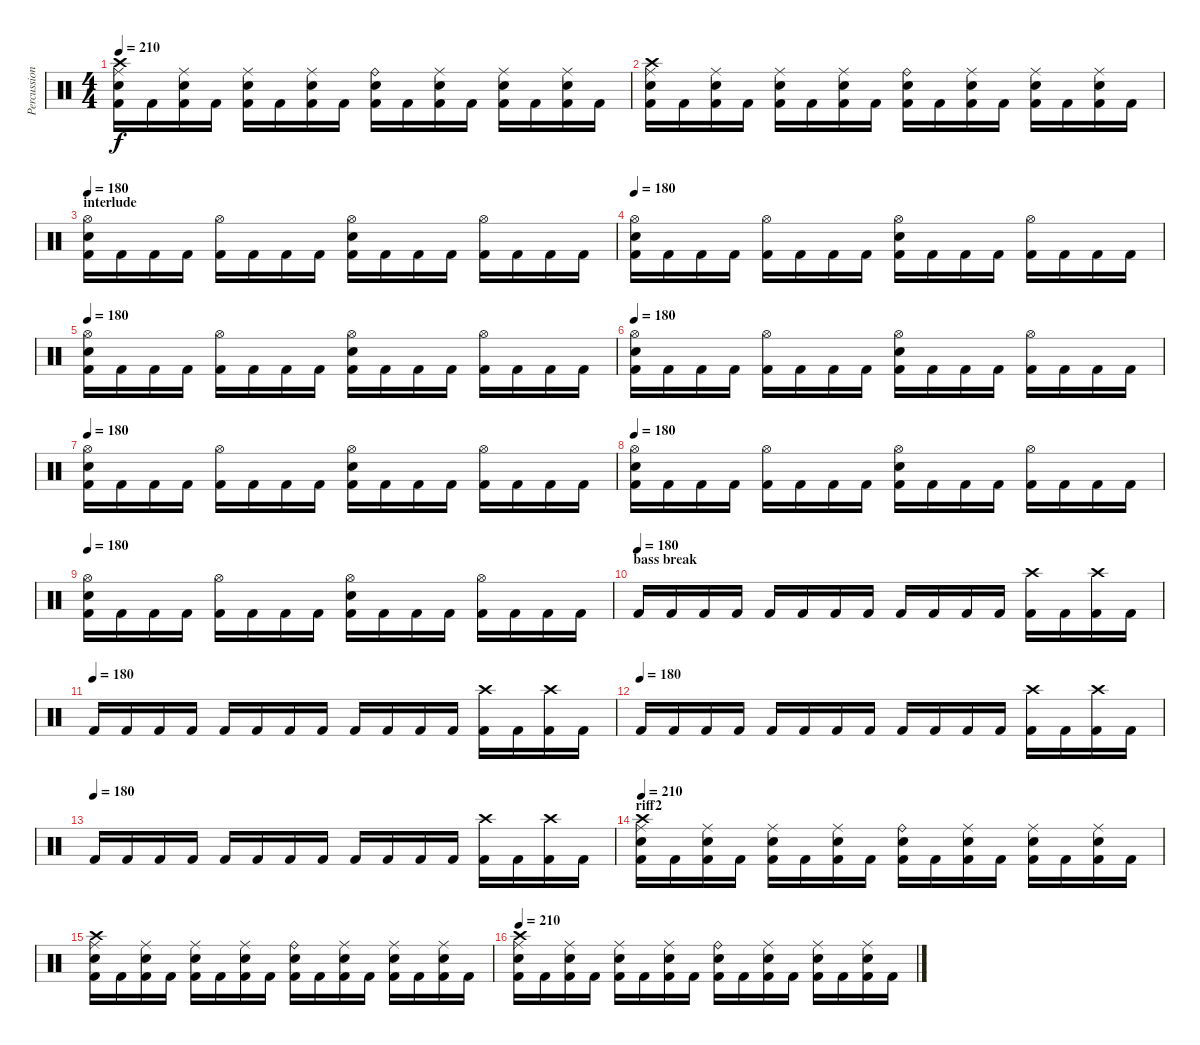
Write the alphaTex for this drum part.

\track ("Percussion" "Percussion") {instrument percussion}
\staff {score}
\articulation defaults
\ts (4 4)
\tempo 210
\clef neutral
\ks c
("Crash high (hit)" "Ride (middle)" "Snare (hit) 2" "Kick (hit) 2").16{dy f} "Kick (hit) 2".16 ("Ride (middle)" "Snare (hit) 2" "Kick (hit) 2").16 "Kick (hit) 2".16 ("Ride (middle)" "Snare (hit) 2" "Kick (hit) 2").16 "Kick (hit) 2".16 ("Ride (middle)" "Snare (hit) 2" "Kick (hit) 2").16 "Kick (hit) 2".16 ("Ride (bell)" "Snare (hit) 2" "Kick (hit) 2").16 "Kick (hit) 2".16 ("Ride (middle)" "Snare (hit) 2" "Kick (hit) 2").16 "Kick (hit) 2".16 ("Ride (middle)" "Snare (hit) 2" "Kick (hit) 2").16 "Kick (hit) 2".16 ("Ride (middle)" "Snare (hit) 2" "Kick (hit) 2").16 "Kick (hit) 2".16 |
("Crash high (hit)" "Ride (middle)" "Snare (hit) 2" "Kick (hit) 2").16 "Kick (hit) 2".16 ("Ride (middle)" "Snare (hit) 2" "Kick (hit) 2").16 "Kick (hit) 2".16 ("Ride (middle)" "Snare (hit) 2" "Kick (hit) 2").16 "Kick (hit) 2".16 ("Ride (middle)" "Snare (hit) 2" "Kick (hit) 2").16 "Kick (hit) 2".16 ("Ride (bell)" "Snare (hit) 2" "Kick (hit) 2").16 "Kick (hit) 2".16 ("Ride (middle)" "Snare (hit) 2" "Kick (hit) 2").16 "Kick (hit) 2".16 ("Ride (middle)" "Snare (hit) 2" "Kick (hit) 2").16 "Kick (hit) 2".16 ("Ride (middle)" "Snare (hit) 2" "Kick (hit) 2").16 "Kick (hit) 2".16 |
\section ("" "interlude")
\tempo 180
("Hi-Hat (open)" "Snare (hit) 2" "Kick (hit) 2").16 "Kick (hit) 2".16 "Kick (hit) 2".16 "Kick (hit) 2".16 ("Hi-Hat (open)" "Kick (hit) 2").16 "Kick (hit) 2".16 "Kick (hit) 2".16 "Kick (hit) 2".16 ("Hi-Hat (open)" "Snare (hit) 2" "Kick (hit) 2").16 "Kick (hit) 2".16 "Kick (hit) 2".16 "Kick (hit) 2".16 ("Hi-Hat (open)" "Kick (hit) 2").16 "Kick (hit) 2".16 "Kick (hit) 2".16 "Kick (hit) 2".16 |
\tempo 180
("Hi-Hat (open)" "Snare (hit) 2" "Kick (hit) 2").16 "Kick (hit) 2".16 "Kick (hit) 2".16 "Kick (hit) 2".16 ("Hi-Hat (open)" "Kick (hit) 2").16 "Kick (hit) 2".16 "Kick (hit) 2".16 "Kick (hit) 2".16 ("Hi-Hat (open)" "Snare (hit) 2" "Kick (hit) 2").16 "Kick (hit) 2".16 "Kick (hit) 2".16 "Kick (hit) 2".16 ("Hi-Hat (open)" "Kick (hit) 2").16 "Kick (hit) 2".16 "Kick (hit) 2".16 "Kick (hit) 2".16 |
\tempo 180
("Hi-Hat (open)" "Snare (hit) 2" "Kick (hit) 2").16 "Kick (hit) 2".16 "Kick (hit) 2".16 "Kick (hit) 2".16 ("Hi-Hat (open)" "Kick (hit) 2").16 "Kick (hit) 2".16 "Kick (hit) 2".16 "Kick (hit) 2".16 ("Hi-Hat (open)" "Snare (hit) 2" "Kick (hit) 2").16 "Kick (hit) 2".16 "Kick (hit) 2".16 "Kick (hit) 2".16 ("Hi-Hat (open)" "Kick (hit) 2").16 "Kick (hit) 2".16 "Kick (hit) 2".16 "Kick (hit) 2".16 |
\tempo 180
("Hi-Hat (open)" "Snare (hit) 2" "Kick (hit) 2").16 "Kick (hit) 2".16 "Kick (hit) 2".16 "Kick (hit) 2".16 ("Hi-Hat (open)" "Kick (hit) 2").16 "Kick (hit) 2".16 "Kick (hit) 2".16 "Kick (hit) 2".16 ("Hi-Hat (open)" "Snare (hit) 2" "Kick (hit) 2").16 "Kick (hit) 2".16 "Kick (hit) 2".16 "Kick (hit) 2".16 ("Hi-Hat (open)" "Kick (hit) 2").16 "Kick (hit) 2".16 "Kick (hit) 2".16 "Kick (hit) 2".16 |
\tempo 180
("Hi-Hat (open)" "Snare (hit) 2" "Kick (hit) 2").16 "Kick (hit) 2".16 "Kick (hit) 2".16 "Kick (hit) 2".16 ("Hi-Hat (open)" "Kick (hit) 2").16 "Kick (hit) 2".16 "Kick (hit) 2".16 "Kick (hit) 2".16 ("Hi-Hat (open)" "Snare (hit) 2" "Kick (hit) 2").16 "Kick (hit) 2".16 "Kick (hit) 2".16 "Kick (hit) 2".16 ("Hi-Hat (open)" "Kick (hit) 2").16 "Kick (hit) 2".16 "Kick (hit) 2".16 "Kick (hit) 2".16 |
\tempo 180
("Hi-Hat (open)" "Snare (hit) 2" "Kick (hit) 2").16 "Kick (hit) 2".16 "Kick (hit) 2".16 "Kick (hit) 2".16 ("Hi-Hat (open)" "Kick (hit) 2").16 "Kick (hit) 2".16 "Kick (hit) 2".16 "Kick (hit) 2".16 ("Hi-Hat (open)" "Snare (hit) 2" "Kick (hit) 2").16 "Kick (hit) 2".16 "Kick (hit) 2".16 "Kick (hit) 2".16 ("Hi-Hat (open)" "Kick (hit) 2").16 "Kick (hit) 2".16 "Kick (hit) 2".16 "Kick (hit) 2".16 |
\tempo 180
("Hi-Hat (open)" "Snare (hit) 2" "Kick (hit) 2").16 "Kick (hit) 2".16 "Kick (hit) 2".16 "Kick (hit) 2".16 ("Hi-Hat (open)" "Kick (hit) 2").16 "Kick (hit) 2".16 "Kick (hit) 2".16 "Kick (hit) 2".16 ("Hi-Hat (open)" "Snare (hit) 2" "Kick (hit) 2").16 "Kick (hit) 2".16 "Kick (hit) 2".16 "Kick (hit) 2".16 ("Hi-Hat (open)" "Kick (hit) 2").16 "Kick (hit) 2".16 "Kick (hit) 2".16 "Kick (hit) 2".16 |
\section ("" "bass break")
\tempo (180)
"Kick (hit) 2".16 "Kick (hit) 2".16 "Kick (hit) 2".16 "Kick (hit) 2".16 "Kick (hit) 2".16 "Kick (hit) 2".16 "Kick (hit) 2".16 "Kick (hit) 2".16 "Kick (hit) 2".16 "Kick (hit) 2".16 "Kick (hit) 2".16 "Kick (hit) 2".16 ("Crash high (hit)" "Kick (hit) 2").16 "Kick (hit) 2".16 ("Crash high (hit)" "Kick (hit) 2").16 "Kick (hit) 2".16 |
\tempo (180)
"Kick (hit) 2".16 "Kick (hit) 2".16 "Kick (hit) 2".16 "Kick (hit) 2".16 "Kick (hit) 2".16 "Kick (hit) 2".16 "Kick (hit) 2".16 "Kick (hit) 2".16 "Kick (hit) 2".16 "Kick (hit) 2".16 "Kick (hit) 2".16 "Kick (hit) 2".16 ("Crash high (hit)" "Kick (hit) 2").16 "Kick (hit) 2".16 ("Crash high (hit)" "Kick (hit) 2").16 "Kick (hit) 2".16 |
\tempo (180)
"Kick (hit) 2".16 "Kick (hit) 2".16 "Kick (hit) 2".16 "Kick (hit) 2".16 "Kick (hit) 2".16 "Kick (hit) 2".16 "Kick (hit) 2".16 "Kick (hit) 2".16 "Kick (hit) 2".16 "Kick (hit) 2".16 "Kick (hit) 2".16 "Kick (hit) 2".16 ("Crash high (hit)" "Kick (hit) 2").16 "Kick (hit) 2".16 ("Crash high (hit)" "Kick (hit) 2").16 "Kick (hit) 2".16 |
\tempo (180)
"Kick (hit) 2".16 "Kick (hit) 2".16 "Kick (hit) 2".16 "Kick (hit) 2".16 "Kick (hit) 2".16 "Kick (hit) 2".16 "Kick (hit) 2".16 "Kick (hit) 2".16 "Kick (hit) 2".16 "Kick (hit) 2".16 "Kick (hit) 2".16 "Kick (hit) 2".16 ("Crash high (hit)" "Kick (hit) 2").16 "Kick (hit) 2".16 ("Crash high (hit)" "Kick (hit) 2").16 "Kick (hit) 2".16 |
\section ("" "riff2")
\tempo 210
("Crash high (hit)" "Ride (middle)" "Snare (hit) 2" "Kick (hit) 2").16 "Kick (hit) 2".16 ("Ride (middle)" "Snare (hit) 2" "Kick (hit) 2").16 "Kick (hit) 2".16 ("Ride (middle)" "Snare (hit) 2" "Kick (hit) 2").16 "Kick (hit) 2".16 ("Ride (middle)" "Snare (hit) 2" "Kick (hit) 2").16 "Kick (hit) 2".16 ("Ride (bell)" "Snare (hit) 2" "Kick (hit) 2").16 "Kick (hit) 2".16 ("Ride (middle)" "Snare (hit) 2" "Kick (hit) 2").16 "Kick (hit) 2".16 ("Ride (middle)" "Snare (hit) 2" "Kick (hit) 2").16 "Kick (hit) 2".16 ("Ride (middle)" "Snare (hit) 2" "Kick (hit) 2").16 "Kick (hit) 2".16 |
("Crash high (hit)" "Ride (middle)" "Snare (hit) 2" "Kick (hit) 2").16 "Kick (hit) 2".16 ("Ride (middle)" "Snare (hit) 2" "Kick (hit) 2").16 "Kick (hit) 2".16 ("Ride (middle)" "Snare (hit) 2" "Kick (hit) 2").16 "Kick (hit) 2".16 ("Ride (middle)" "Snare (hit) 2" "Kick (hit) 2").16 "Kick (hit) 2".16 ("Ride (bell)" "Snare (hit) 2" "Kick (hit) 2").16 "Kick (hit) 2".16 ("Ride (middle)" "Snare (hit) 2" "Kick (hit) 2").16 "Kick (hit) 2".16 ("Ride (middle)" "Snare (hit) 2" "Kick (hit) 2").16 "Kick (hit) 2".16 ("Ride (middle)" "Snare (hit) 2" "Kick (hit) 2").16 "Kick (hit) 2".16 |
\tempo 210
("Crash high (hit)" "Ride (middle)" "Snare (hit) 2" "Kick (hit) 2").16 "Kick (hit) 2".16 ("Ride (middle)" "Snare (hit) 2" "Kick (hit) 2").16 "Kick (hit) 2".16 ("Ride (middle)" "Snare (hit) 2" "Kick (hit) 2").16 "Kick (hit) 2".16 ("Ride (middle)" "Snare (hit) 2" "Kick (hit) 2").16 "Kick (hit) 2".16 ("Ride (bell)" "Snare (hit) 2" "Kick (hit) 2").16 "Kick (hit) 2".16 ("Ride (middle)" "Snare (hit) 2" "Kick (hit) 2").16 "Kick (hit) 2".16 ("Ride (middle)" "Snare (hit) 2" "Kick (hit) 2").16 "Kick (hit) 2".16 ("Ride (middle)" "Snare (hit) 2" "Kick (hit) 2").16 "Kick (hit) 2".16
